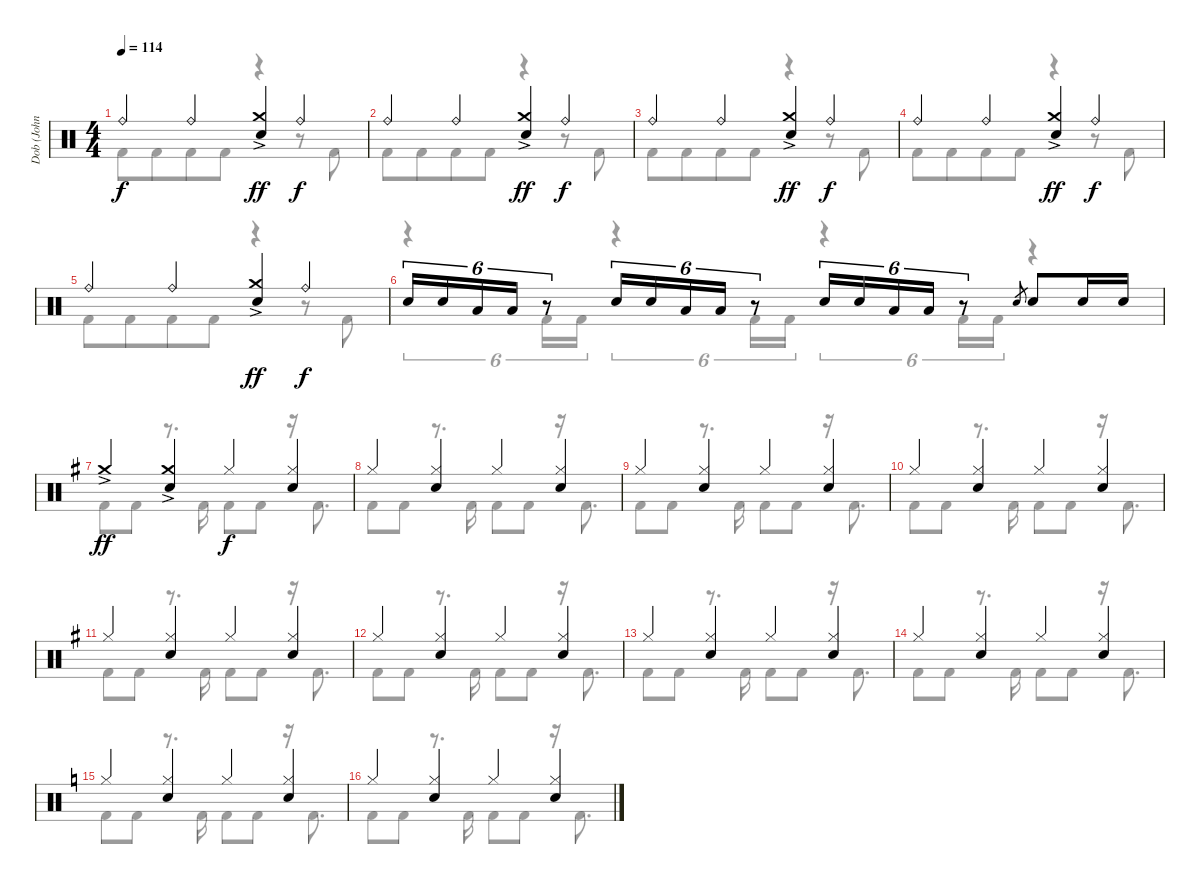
\track ("Dob (John Macaluso)" "Dob (John ") {instrument percussion}
\staff {score}
\articulation defaults
\voice
\ts (4 4)
\tempo 114
\clef neutral
\ks c "Ride (bell)".4{dy f} "Ride (bell)".4
("Crash medium (hit)"{ac} "Electric Snare (hit)").4{dy ff} "Ride (bell)".4{dy f} |
"Ride (bell)".4 "Ride (bell)".4 ("Crash medium (hit)"{ac} "Electric Snare (hit)").4{dy ff} "Ride (bell)".4{dy f} |
"Ride (bell)".4 "Ride (bell)".4 ("Crash medium (hit)"{ac} "Electric Snare (hit)").4{dy ff} "Ride (bell)".4{dy f} |
"Ride (bell)".4 "Ride (bell)".4 ("Crash medium (hit)"{ac} "Electric Snare (hit)").4{dy ff} "Ride (bell)".4{dy f} |
"Ride (bell)".4 "Ride (bell)".4 ("Crash medium (hit)"{ac} "Electric Snare (hit)").4{dy ff} "Ride (bell)".4{dy f} |
"Electric Snare (hit)".16{tu (6 4)} "Electric Snare (hit)".16{tu (6 4)} "Low Tom (hit)".16{tu (6 4)} "Low Tom (hit)".16{tu (6 4)} r.8{tu (6 4)} "Electric Snare (hit)".16{tu (6 4)} "Electric Snare (hit)".16{tu (6 4)} "Low Tom (hit)".16{tu (6 4)} "Low Tom (hit)".16{tu (6 4)} r.8{tu (6 4)} "Electric Snare (hit)".16{tu (6 4)} "Electric Snare (hit)".16{tu (6 4)} "Low Tom (hit)".16{tu (6 4)} "Low Tom (hit)".16{tu (6 4)} r.8{tu (6 4)} "Electric Snare (hit)".8{gr} "Electric Snare (hit)".8 "Electric Snare (hit)".16 "Electric Snare (hit)".16 |
\ks g "Crash medium (hit)"{ac}.4{dy ff}
("Crash medium (hit)"{ac} "Electric Snare (hit)").4 "Hi-Hat (closed)".4{dy f} ("Hi-Hat (closed)" "Electric Snare (hit)").4 |
"Hi-Hat (closed)".4 ("Hi-Hat (closed)" "Electric Snare (hit)").4 "Hi-Hat (closed)".4 ("Hi-Hat (closed)" "Electric Snare (hit)").4 |
"Hi-Hat (closed)".4 ("Hi-Hat (closed)" "Electric Snare (hit)").4 "Hi-Hat (closed)".4 ("Hi-Hat (closed)" "Electric Snare (hit)").4 |
"Hi-Hat (closed)".4 ("Hi-Hat (closed)" "Electric Snare (hit)").4 "Hi-Hat (closed)".4 ("Hi-Hat (closed)" "Electric Snare (hit)").4 |
"Hi-Hat (closed)".4 ("Hi-Hat (closed)" "Electric Snare (hit)").4 "Hi-Hat (closed)".4 ("Hi-Hat (closed)" "Electric Snare (hit)").4 |
"Hi-Hat (closed)".4 ("Hi-Hat (closed)" "Electric Snare (hit)").4 "Hi-Hat (closed)".4 ("Hi-Hat (closed)" "Electric Snare (hit)").4 |
"Hi-Hat (closed)".4 ("Hi-Hat (closed)" "Electric Snare (hit)").4 "Hi-Hat (closed)".4 ("Hi-Hat (closed)" "Electric Snare (hit)").4 |
"Hi-Hat (closed)".4 ("Hi-Hat (closed)" "Electric Snare (hit)").4 "Hi-Hat (closed)".4 ("Hi-Hat (closed)" "Electric Snare (hit)").4 |
\ks c "Hi-Hat (closed)".4
("Hi-Hat (closed)" "Electric Snare (hit)").4 "Hi-Hat (closed)".4 ("Hi-Hat (closed)" "Electric Snare (hit)").4 |
"Hi-Hat (closed)".4 ("Hi-Hat (closed)" "Electric Snare (hit)").4 "Hi-Hat (closed)".4 ("Hi-Hat (closed)" "Electric Snare (hit)").4
\voice
\clef neutral
\ottava regular
\simile none
\ks c "Kick (hit) 2".8{dy f} "Kick (hit) 2".8{beam merge} "Kick (hit) 2".8 "Kick (hit) 2".8
r.4 r.8 "Kick (hit) 2".8 |
"Kick (hit) 2".8 "Kick (hit) 2".8{beam merge} "Kick (hit) 2".8 "Kick (hit) 2".8 r.4 r.8 "Kick (hit) 2".8 |
"Kick (hit) 2".8 "Kick (hit) 2".8{beam merge} "Kick (hit) 2".8 "Kick (hit) 2".8 r.4 r.8 "Kick (hit) 2".8 |
"Kick (hit) 2".8 "Kick (hit) 2".8{beam merge} "Kick (hit) 2".8 "Kick (hit) 2".8 r.4 r.8 "Kick (hit) 2".8 |
"Kick (hit) 2".8 "Kick (hit) 2".8{beam merge} "Kick (hit) 2".8 "Kick (hit) 2".8 r.4 r.8 "Kick (hit) 2".8 |
r.4{tu (6 4)} "Kick (hit) 2".16{tu (6 4)} "Kick (hit) 2".16{tu (6 4)} r.4{tu (6 4)} "Kick (hit) 2".16{tu (6 4)} "Kick (hit) 2".16{tu (6 4)} r.4{tu (6 4)} "Kick (hit) 2".16{tu (6 4)} "Kick (hit) 2".16{tu (6 4)} r.4 |
\ks g "Kick (hit) 2".8 "Kick (hit) 2".8
r.8{d} "Kick (hit) 2".16 "Kick (hit) 2".8 "Kick (hit) 2".8 r.16 "Kick (hit) 2".8{d} |
"Kick (hit) 2".8 "Kick (hit) 2".8 r.8{d} "Kick (hit) 2".16 "Kick (hit) 2".8 "Kick (hit) 2".8 r.16 "Kick (hit) 2".8{d} |
"Kick (hit) 2".8 "Kick (hit) 2".8 r.8{d} "Kick (hit) 2".16 "Kick (hit) 2".8 "Kick (hit) 2".8 r.16 "Kick (hit) 2".8{d} |
"Kick (hit) 2".8 "Kick (hit) 2".8 r.8{d} "Kick (hit) 2".16 "Kick (hit) 2".8 "Kick (hit) 2".8 r.16 "Kick (hit) 2".8{d} |
"Kick (hit) 2".8 "Kick (hit) 2".8 r.8{d} "Kick (hit) 2".16 "Kick (hit) 2".8 "Kick (hit) 2".8 r.16 "Kick (hit) 2".8{d} |
"Kick (hit) 2".8 "Kick (hit) 2".8 r.8{d} "Kick (hit) 2".16 "Kick (hit) 2".8 "Kick (hit) 2".8 r.16 "Kick (hit) 2".8{d} |
"Kick (hit) 2".8 "Kick (hit) 2".8 r.8{d} "Kick (hit) 2".16 "Kick (hit) 2".8 "Kick (hit) 2".8 r.16 "Kick (hit) 2".8{d} |
"Kick (hit) 2".8 "Kick (hit) 2".8 r.8{d} "Kick (hit) 2".16 "Kick (hit) 2".8 "Kick (hit) 2".8 r.16 "Kick (hit) 2".8{d} |
\ks c "Kick (hit) 2".8 "Kick (hit) 2".8
r.8{d} "Kick (hit) 2".16 "Kick (hit) 2".8 "Kick (hit) 2".8 r.16 "Kick (hit) 2".8{d} |
"Kick (hit) 2".8 "Kick (hit) 2".8 r.8{d} "Kick (hit) 2".16 "Kick (hit) 2".8 "Kick (hit) 2".8 r.16 "Kick (hit) 2".8{d}
